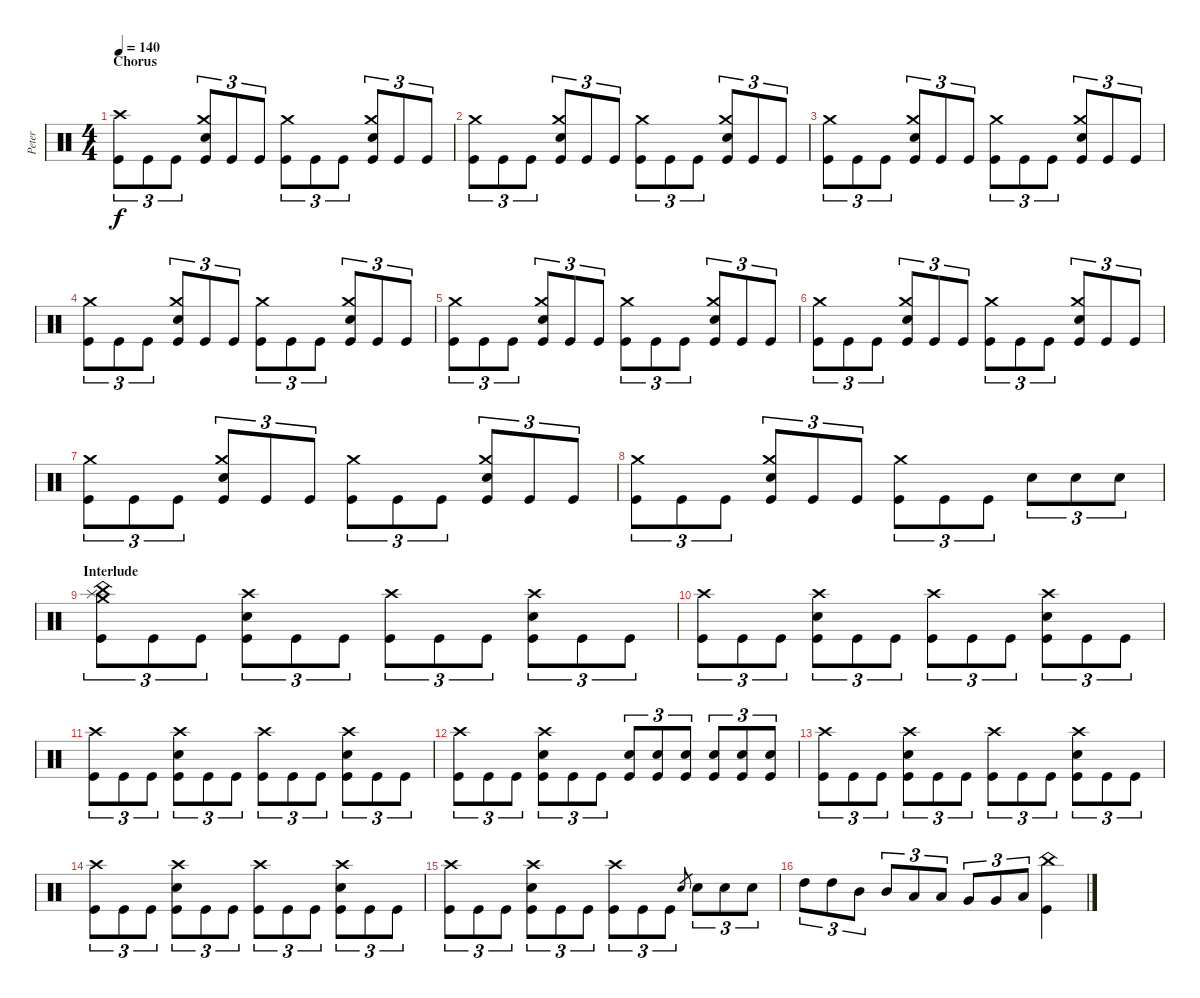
\track ("Peter" "Peter") {instrument percussion}
\staff {score}
\articulation defaults
\ts (4 4)
\section ("" "Chorus")
\tempo 140
\clef neutral
\ks c
("Crash high (hit)" "Kick (hit)").8{tu (3 2) dy f} "Kick (hit)".8{tu (3 2)} "Kick (hit)".8{tu (3 2)} ("Crash medium (hit)" "Electric Snare (hit)" "Kick (hit)").8{tu (3 2)} "Kick (hit)".8{tu (3 2)} "Kick (hit)".8{tu (3 2)} ("Crash medium (hit)" "Kick (hit)").8{tu (3 2)} "Kick (hit)".8{tu (3 2)} "Kick (hit)".8{tu (3 2)} ("Crash medium (hit)" "Electric Snare (hit)" "Kick (hit)").8{tu (3 2)} "Kick (hit)".8{tu (3 2)} "Kick (hit)".8{tu (3 2)} |
("Crash medium (hit)" "Kick (hit)").8{tu (3 2)} "Kick (hit)".8{tu (3 2)} "Kick (hit)".8{tu (3 2)} ("Crash medium (hit)" "Electric Snare (hit)" "Kick (hit)").8{tu (3 2)} "Kick (hit)".8{tu (3 2)} "Kick (hit)".8{tu (3 2)} ("Crash medium (hit)" "Kick (hit)").8{tu (3 2)} "Kick (hit)".8{tu (3 2)} "Kick (hit)".8{tu (3 2)} ("Crash medium (hit)" "Electric Snare (hit)" "Kick (hit)").8{tu (3 2)} "Kick (hit)".8{tu (3 2)} "Kick (hit)".8{tu (3 2)} |
("Crash medium (hit)" "Kick (hit)").8{tu (3 2)} "Kick (hit)".8{tu (3 2)} "Kick (hit)".8{tu (3 2)} ("Crash medium (hit)" "Electric Snare (hit)" "Kick (hit)").8{tu (3 2)} "Kick (hit)".8{tu (3 2)} "Kick (hit)".8{tu (3 2)} ("Crash medium (hit)" "Kick (hit)").8{tu (3 2)} "Kick (hit)".8{tu (3 2)} "Kick (hit)".8{tu (3 2)} ("Crash medium (hit)" "Electric Snare (hit)" "Kick (hit)").8{tu (3 2)} "Kick (hit)".8{tu (3 2)} "Kick (hit)".8{tu (3 2)} |
("Crash medium (hit)" "Kick (hit)").8{tu (3 2)} "Kick (hit)".8{tu (3 2)} "Kick (hit)".8{tu (3 2)} ("Crash medium (hit)" "Electric Snare (hit)" "Kick (hit)").8{tu (3 2)} "Kick (hit)".8{tu (3 2)} "Kick (hit)".8{tu (3 2)} ("Crash medium (hit)" "Kick (hit)").8{tu (3 2)} "Kick (hit)".8{tu (3 2)} "Kick (hit)".8{tu (3 2)} ("Crash medium (hit)" "Electric Snare (hit)" "Kick (hit)").8{tu (3 2)} "Kick (hit)".8{tu (3 2)} "Kick (hit)".8{tu (3 2)} |
("Crash medium (hit)" "Kick (hit)").8{tu (3 2)} "Kick (hit)".8{tu (3 2)} "Kick (hit)".8{tu (3 2)} ("Crash medium (hit)" "Electric Snare (hit)" "Kick (hit)").8{tu (3 2)} "Kick (hit)".8{tu (3 2)} "Kick (hit)".8{tu (3 2)} ("Crash medium (hit)" "Kick (hit)").8{tu (3 2)} "Kick (hit)".8{tu (3 2)} "Kick (hit)".8{tu (3 2)} ("Crash medium (hit)" "Electric Snare (hit)" "Kick (hit)").8{tu (3 2)} "Kick (hit)".8{tu (3 2)} "Kick (hit)".8{tu (3 2)} |
("Crash medium (hit)" "Kick (hit)").8{tu (3 2)} "Kick (hit)".8{tu (3 2)} "Kick (hit)".8{tu (3 2)} ("Crash medium (hit)" "Electric Snare (hit)" "Kick (hit)").8{tu (3 2)} "Kick (hit)".8{tu (3 2)} "Kick (hit)".8{tu (3 2)} ("Crash medium (hit)" "Kick (hit)").8{tu (3 2)} "Kick (hit)".8{tu (3 2)} "Kick (hit)".8{tu (3 2)} ("Crash medium (hit)" "Electric Snare (hit)" "Kick (hit)").8{tu (3 2)} "Kick (hit)".8{tu (3 2)} "Kick (hit)".8{tu (3 2)} |
("Crash medium (hit)" "Kick (hit)").8{tu (3 2)} "Kick (hit)".8{tu (3 2)} "Kick (hit)".8{tu (3 2)} ("Crash medium (hit)" "Electric Snare (hit)" "Kick (hit)").8{tu (3 2)} "Kick (hit)".8{tu (3 2)} "Kick (hit)".8{tu (3 2)} ("Crash medium (hit)" "Kick (hit)").8{tu (3 2)} "Kick (hit)".8{tu (3 2)} "Kick (hit)".8{tu (3 2)} ("Crash medium (hit)" "Electric Snare (hit)" "Kick (hit)").8{tu (3 2)} "Kick (hit)".8{tu (3 2)} "Kick (hit)".8{tu (3 2)} |
("Crash medium (hit)" "Kick (hit)").8{tu (3 2)} "Kick (hit)".8{tu (3 2)} "Kick (hit)".8{tu (3 2)} ("Crash medium (hit)" "Electric Snare (hit)" "Kick (hit)").8{tu (3 2)} "Kick (hit)".8{tu (3 2)} "Kick (hit)".8{tu (3 2)} ("Crash medium (hit)" "Kick (hit)").8{tu (3 2)} "Kick (hit)".8{tu (3 2)} "Kick (hit)".8{tu (3 2)} "Electric Snare (hit)".8{tu (3 2)} "Electric Snare (hit)".8{tu (3 2)} "Electric Snare (hit)".8{tu (3 2)} |
\section ("" "Interlude")
("Splash (hit)" "Crash medium (hit)" "China (hit)" "Kick (hit)").8{tu (3 2)} "Kick (hit)".8{tu (3 2)} "Kick (hit)".8{tu (3 2)} ("Crash high (hit)" "Electric Snare (hit)" "Kick (hit)").8{tu (3 2)} "Kick (hit)".8{tu (3 2)} "Kick (hit)".8{tu (3 2)} ("Crash high (hit)" "Kick (hit)").8{tu (3 2)} "Kick (hit)".8{tu (3 2)} "Kick (hit)".8{tu (3 2)} ("Crash high (hit)" "Electric Snare (hit)" "Kick (hit)").8{tu (3 2)} "Kick (hit)".8{tu (3 2)} "Kick (hit)".8{tu (3 2)} |
("Crash high (hit)" "Kick (hit)").8{tu (3 2)} "Kick (hit)".8{tu (3 2)} "Kick (hit)".8{tu (3 2)} ("Crash high (hit)" "Electric Snare (hit)" "Kick (hit)").8{tu (3 2)} "Kick (hit)".8{tu (3 2)} "Kick (hit)".8{tu (3 2)} ("Crash high (hit)" "Kick (hit)").8{tu (3 2)} "Kick (hit)".8{tu (3 2)} "Kick (hit)".8{tu (3 2)} ("Crash high (hit)" "Electric Snare (hit)" "Kick (hit)").8{tu (3 2)} "Kick (hit)".8{tu (3 2)} "Kick (hit)".8{tu (3 2)} |
("Crash high (hit)" "Kick (hit)").8{tu (3 2)} "Kick (hit)".8{tu (3 2)} "Kick (hit)".8{tu (3 2)} ("Crash high (hit)" "Electric Snare (hit)" "Kick (hit)").8{tu (3 2)} "Kick (hit)".8{tu (3 2)} "Kick (hit)".8{tu (3 2)} ("Crash high (hit)" "Kick (hit)").8{tu (3 2)} "Kick (hit)".8{tu (3 2)} "Kick (hit)".8{tu (3 2)} ("Crash high (hit)" "Electric Snare (hit)" "Kick (hit)").8{tu (3 2)} "Kick (hit)".8{tu (3 2)} "Kick (hit)".8{tu (3 2)} |
("Crash high (hit)" "Kick (hit)").8{tu (3 2)} "Kick (hit)".8{tu (3 2)} "Kick (hit)".8{tu (3 2)} ("Crash high (hit)" "Electric Snare (hit)" "Kick (hit)").8{tu (3 2)} "Kick (hit)".8{tu (3 2)} "Kick (hit)".8{tu (3 2)} ("Electric Snare (hit)" "Kick (hit)").8{tu (3 2)} ("Electric Snare (hit)" "Kick (hit)").8{tu (3 2)} ("Electric Snare (hit)" "Kick (hit)").8{tu (3 2)} ("Electric Snare (hit)" "Kick (hit)").8{tu (3 2)} ("Electric Snare (hit)" "Kick (hit)").8{tu (3 2)} ("Electric Snare (hit)" "Kick (hit)").8{tu (3 2)} |
("Crash high (hit)" "Kick (hit)").8{tu (3 2)} "Kick (hit)".8{tu (3 2)} "Kick (hit)".8{tu (3 2)} ("Crash high (hit)" "Electric Snare (hit)" "Kick (hit)").8{tu (3 2)} "Kick (hit)".8{tu (3 2)} "Kick (hit)".8{tu (3 2)} ("Crash high (hit)" "Kick (hit)").8{tu (3 2)} "Kick (hit)".8{tu (3 2)} "Kick (hit)".8{tu (3 2)} ("Crash high (hit)" "Electric Snare (hit)" "Kick (hit)").8{tu (3 2)} "Kick (hit)".8{tu (3 2)} "Kick (hit)".8{tu (3 2)} |
("Crash high (hit)" "Kick (hit)").8{tu (3 2)} "Kick (hit)".8{tu (3 2)} "Kick (hit)".8{tu (3 2)} ("Crash high (hit)" "Electric Snare (hit)" "Kick (hit)").8{tu (3 2)} "Kick (hit)".8{tu (3 2)} "Kick (hit)".8{tu (3 2)} ("Crash high (hit)" "Kick (hit)").8{tu (3 2)} "Kick (hit)".8{tu (3 2)} "Kick (hit)".8{tu (3 2)} ("Crash high (hit)" "Electric Snare (hit)" "Kick (hit)").8{tu (3 2)} "Kick (hit)".8{tu (3 2)} "Kick (hit)".8{tu (3 2)} |
("Crash high (hit)" "Kick (hit)").8{tu (3 2)} "Kick (hit)".8{tu (3 2)} "Kick (hit)".8{tu (3 2)} ("Crash high (hit)" "Electric Snare (hit)" "Kick (hit)").8{tu (3 2)} "Kick (hit)".8{tu (3 2)} "Kick (hit)".8{tu (3 2)} ("Crash high (hit)" "Kick (hit)").8{tu (3 2)} "Kick (hit)".8{tu (3 2)} "Kick (hit)".8{tu (3 2)} "Electric Snare (hit)".8{gr} "Electric Snare (hit)".8{tu (3 2)} "Electric Snare (hit)".8{tu (3 2)} "Electric Snare (hit)".8{tu (3 2)} |
"High Tom (hit)".8{tu (3 2)} "High Tom (hit)".8{tu (3 2)} "Mid Tom (hit)".8{tu (3 2)} "Mid Tom (hit)".8{tu (3 2)} "Low Tom (hit)".8{tu (3 2)} "Low Tom (hit)".8{tu (3 2)} "Very Low Tom (hit)".8{tu (3 2)} "Very Low Tom (hit)".8{tu (3 2)} "Low Floor Tom (hit)".8{tu (3 2)} ("China (hit)" "Kick (hit)").4
